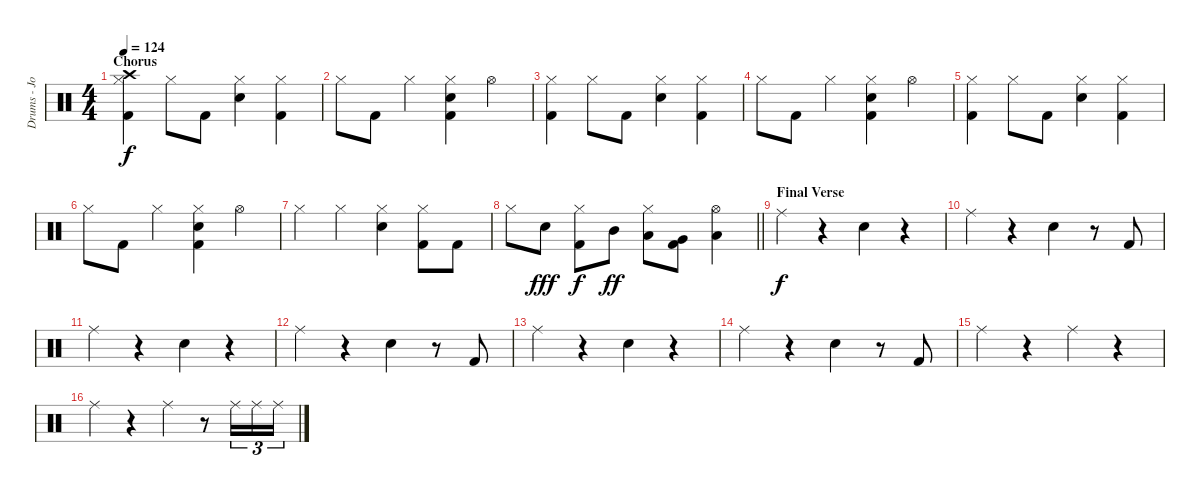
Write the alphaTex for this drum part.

\track ("Drums - John Humphrey" "Drums - Jo") {instrument percussion}
\staff {score}
\articulation defaults
\ts (4 4)
\section ("" "Chorus")
\tempo 124
\clef neutral
\ks c
("Hi-Hat (closed)" "Crash high (hit)" "Kick (hit) 2").4{dy f} "Hi-Hat (closed)".8 "Kick (hit) 2".8 ("Hi-Hat (closed)" "Electric Snare (hit)").4 ("Hi-Hat (closed)" "Kick (hit) 2").4 |
"Hi-Hat (closed)".8 "Kick (hit) 2".8 "Hi-Hat (closed)".4 ("Hi-Hat (closed)" "Electric Snare (hit)" "Kick (hit) 2").4 "Hi-Hat (open)".4 |
("Hi-Hat (closed)" "Kick (hit) 2").4 "Hi-Hat (closed)".8 "Kick (hit) 2".8 ("Hi-Hat (closed)" "Electric Snare (hit)").4 ("Hi-Hat (closed)" "Kick (hit) 2").4 |
"Hi-Hat (closed)".8 "Kick (hit) 2".8 "Hi-Hat (closed)".4 ("Hi-Hat (closed)" "Electric Snare (hit)" "Kick (hit) 2").4 "Hi-Hat (open)".4 |
("Hi-Hat (closed)" "Kick (hit) 2").4 "Hi-Hat (closed)".8 "Kick (hit) 2".8 ("Hi-Hat (closed)" "Electric Snare (hit)").4 ("Hi-Hat (closed)" "Kick (hit) 2").4 |
"Hi-Hat (closed)".8 "Kick (hit) 2".8 "Hi-Hat (closed)".4 ("Hi-Hat (closed)" "Electric Snare (hit)" "Kick (hit) 2").4 "Hi-Hat (open)".4 |
"Hi-Hat (closed)".4 "Hi-Hat (closed)".4 ("Hi-Hat (closed)" "Electric Snare (hit)").4 ("Hi-Hat (closed)" "Kick (hit) 2").8 "Kick (hit) 2".8 |
\barLineRight lightlight "Hi-Hat (closed)".8 "Electric Snare (hit)".8{dy fff}
("Hi-Hat (closed)" "Kick (hit) 2").8{dy f} "Mid Tom (hit)".8{dy ff} ("Hi-Hat (closed)" "Low Tom (hit)").8 ("Very Low Tom (hit)" "Kick (hit) 2").8 ("Hi-Hat (open)" "Low Floor Tom (hit)").4 |
\section ("" "Final Verse")
"Ride (middle)".4{dy f} r.4 "Electric Snare (hit)".4 r.4 |
"Ride (middle)".4 r.4 "Electric Snare (hit)".4 r.8 "Kick (hit) 2".8 |
"Ride (middle)".4 r.4 "Electric Snare (hit)".4 r.4 |
"Ride (middle)".4 r.4 "Electric Snare (hit)".4 r.8 "Kick (hit) 2".8 |
"Ride (middle)".4 r.4 "Electric Snare (hit)".4 r.4 |
"Ride (middle)".4 r.4 "Electric Snare (hit)".4 r.8 "Kick (hit) 2".8 |
"Ride (middle)".4 r.4 "Ride (middle)".4 r.4 |
"Ride (middle)".4 r.4 "Ride (middle)".4 r.8 "Ride (middle)".16{tu (3 2)} "Ride (middle)".16{tu (3 2)} "Ride (middle)".16{tu (3 2)}
